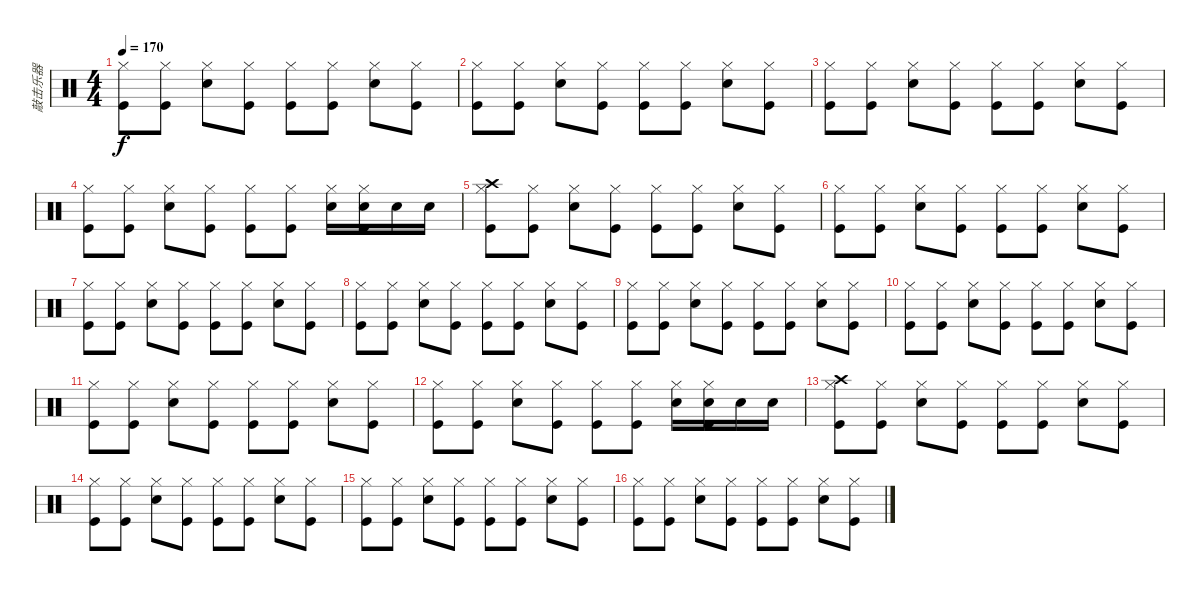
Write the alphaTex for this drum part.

\track ("敲击乐器" "敲击乐器") {instrument percussion}
\staff {score}
\articulation defaults
\ts (4 4)
\tempo 170
\clef neutral
\ks c
("Hi-Hat (closed)" "Kick (hit)").8{dy f} ("Hi-Hat (closed)" "Kick (hit)").8 ("Hi-Hat (closed)" "Snare (hit) 2").8 ("Hi-Hat (closed)" "Kick (hit)").8 ("Hi-Hat (closed)" "Kick (hit)").8 ("Hi-Hat (closed)" "Kick (hit)").8 ("Hi-Hat (closed)" "Snare (hit) 2").8 ("Hi-Hat (closed)" "Kick (hit)").8 |
("Hi-Hat (closed)" "Kick (hit)").8 ("Hi-Hat (closed)" "Kick (hit)").8 ("Hi-Hat (closed)" "Snare (hit) 2").8 ("Hi-Hat (closed)" "Kick (hit)").8 ("Hi-Hat (closed)" "Kick (hit)").8 ("Hi-Hat (closed)" "Kick (hit)").8 ("Hi-Hat (closed)" "Snare (hit) 2").8 ("Hi-Hat (closed)" "Kick (hit)").8 |
("Hi-Hat (closed)" "Kick (hit)").8 ("Hi-Hat (closed)" "Kick (hit)").8 ("Hi-Hat (closed)" "Snare (hit) 2").8 ("Hi-Hat (closed)" "Kick (hit)").8 ("Hi-Hat (closed)" "Kick (hit)").8 ("Hi-Hat (closed)" "Kick (hit)").8 ("Hi-Hat (closed)" "Snare (hit) 2").8 ("Hi-Hat (closed)" "Kick (hit)").8 |
("Hi-Hat (closed)" "Kick (hit)").8 ("Hi-Hat (closed)" "Kick (hit)").8 ("Hi-Hat (closed)" "Snare (hit) 2").8 ("Hi-Hat (closed)" "Kick (hit)").8 ("Hi-Hat (closed)" "Kick (hit)").8 ("Hi-Hat (closed)" "Kick (hit)").8 ("Hi-Hat (closed)" "Snare (hit) 2").16 ("Hi-Hat (closed)" "Snare (hit) 2" "Kick (hit)").16 "Snare (hit) 2".16 "Snare (hit) 2".16 |
("Crash high (hit)" "Hi-Hat (closed)" "Kick (hit)").8 ("Hi-Hat (closed)" "Kick (hit)").8 ("Hi-Hat (closed)" "Snare (hit) 2").8 ("Hi-Hat (closed)" "Kick (hit)").8 ("Hi-Hat (closed)" "Kick (hit)").8 ("Hi-Hat (closed)" "Kick (hit)").8 ("Hi-Hat (closed)" "Snare (hit) 2").8 ("Hi-Hat (closed)" "Kick (hit)").8 |
("Hi-Hat (closed)" "Kick (hit)").8 ("Hi-Hat (closed)" "Kick (hit)").8 ("Hi-Hat (closed)" "Snare (hit) 2").8 ("Hi-Hat (closed)" "Kick (hit)").8 ("Hi-Hat (closed)" "Kick (hit)").8 ("Hi-Hat (closed)" "Kick (hit)").8 ("Hi-Hat (closed)" "Snare (hit) 2").8 ("Hi-Hat (closed)" "Kick (hit)").8 |
("Hi-Hat (closed)" "Kick (hit)").8 ("Hi-Hat (closed)" "Kick (hit)").8 ("Hi-Hat (closed)" "Snare (hit) 2").8 ("Hi-Hat (closed)" "Kick (hit)").8 ("Hi-Hat (closed)" "Kick (hit)").8 ("Hi-Hat (closed)" "Kick (hit)").8 ("Hi-Hat (closed)" "Snare (hit) 2").8 ("Hi-Hat (closed)" "Kick (hit)").8 |
("Hi-Hat (closed)" "Kick (hit)").8 ("Hi-Hat (closed)" "Kick (hit)").8 ("Hi-Hat (closed)" "Snare (hit) 2").8 ("Hi-Hat (closed)" "Kick (hit)").8 ("Hi-Hat (closed)" "Kick (hit)").8 ("Hi-Hat (closed)" "Kick (hit)").8 ("Hi-Hat (closed)" "Snare (hit) 2").8 ("Hi-Hat (closed)" "Kick (hit)").8 |
("Hi-Hat (closed)" "Kick (hit)").8 ("Hi-Hat (closed)" "Kick (hit)").8 ("Hi-Hat (closed)" "Snare (hit) 2").8 ("Hi-Hat (closed)" "Kick (hit)").8 ("Hi-Hat (closed)" "Kick (hit)").8 ("Hi-Hat (closed)" "Kick (hit)").8 ("Hi-Hat (closed)" "Snare (hit) 2").8 ("Hi-Hat (closed)" "Kick (hit)").8 |
("Hi-Hat (closed)" "Kick (hit)").8 ("Hi-Hat (closed)" "Kick (hit)").8 ("Hi-Hat (closed)" "Snare (hit) 2").8 ("Hi-Hat (closed)" "Kick (hit)").8 ("Hi-Hat (closed)" "Kick (hit)").8 ("Hi-Hat (closed)" "Kick (hit)").8 ("Hi-Hat (closed)" "Snare (hit) 2").8 ("Hi-Hat (closed)" "Kick (hit)").8 |
("Hi-Hat (closed)" "Kick (hit)").8 ("Hi-Hat (closed)" "Kick (hit)").8 ("Hi-Hat (closed)" "Snare (hit) 2").8 ("Hi-Hat (closed)" "Kick (hit)").8 ("Hi-Hat (closed)" "Kick (hit)").8 ("Hi-Hat (closed)" "Kick (hit)").8 ("Hi-Hat (closed)" "Snare (hit) 2").8 ("Hi-Hat (closed)" "Kick (hit)").8 |
("Hi-Hat (closed)" "Kick (hit)").8 ("Hi-Hat (closed)" "Kick (hit)").8 ("Hi-Hat (closed)" "Snare (hit) 2").8 ("Hi-Hat (closed)" "Kick (hit)").8 ("Hi-Hat (closed)" "Kick (hit)").8 ("Hi-Hat (closed)" "Kick (hit)").8 ("Hi-Hat (closed)" "Snare (hit) 2").16 ("Hi-Hat (closed)" "Snare (hit) 2" "Kick (hit)").16 "Snare (hit) 2".16 "Snare (hit) 2".16 |
("Crash high (hit)" "Hi-Hat (closed)" "Kick (hit)").8 ("Hi-Hat (closed)" "Kick (hit)").8 ("Hi-Hat (closed)" "Snare (hit) 2").8 ("Hi-Hat (closed)" "Kick (hit)").8 ("Hi-Hat (closed)" "Kick (hit)").8 ("Hi-Hat (closed)" "Kick (hit)").8 ("Hi-Hat (closed)" "Snare (hit) 2").8 ("Hi-Hat (closed)" "Kick (hit)").8 |
("Hi-Hat (closed)" "Kick (hit)").8 ("Hi-Hat (closed)" "Kick (hit)").8 ("Hi-Hat (closed)" "Snare (hit) 2").8 ("Hi-Hat (closed)" "Kick (hit)").8 ("Hi-Hat (closed)" "Kick (hit)").8 ("Hi-Hat (closed)" "Kick (hit)").8 ("Hi-Hat (closed)" "Snare (hit) 2").8 ("Hi-Hat (closed)" "Kick (hit)").8 |
("Hi-Hat (closed)" "Kick (hit)").8 ("Hi-Hat (closed)" "Kick (hit)").8 ("Hi-Hat (closed)" "Snare (hit) 2").8 ("Hi-Hat (closed)" "Kick (hit)").8 ("Hi-Hat (closed)" "Kick (hit)").8 ("Hi-Hat (closed)" "Kick (hit)").8 ("Hi-Hat (closed)" "Snare (hit) 2").8 ("Hi-Hat (closed)" "Kick (hit)").8 |
("Hi-Hat (closed)" "Kick (hit)").8 ("Hi-Hat (closed)" "Kick (hit)").8 ("Hi-Hat (closed)" "Snare (hit) 2").8 ("Hi-Hat (closed)" "Kick (hit)").8 ("Hi-Hat (closed)" "Kick (hit)").8 ("Hi-Hat (closed)" "Kick (hit)").8 ("Hi-Hat (closed)" "Snare (hit) 2").8 ("Hi-Hat (closed)" "Kick (hit)").8
